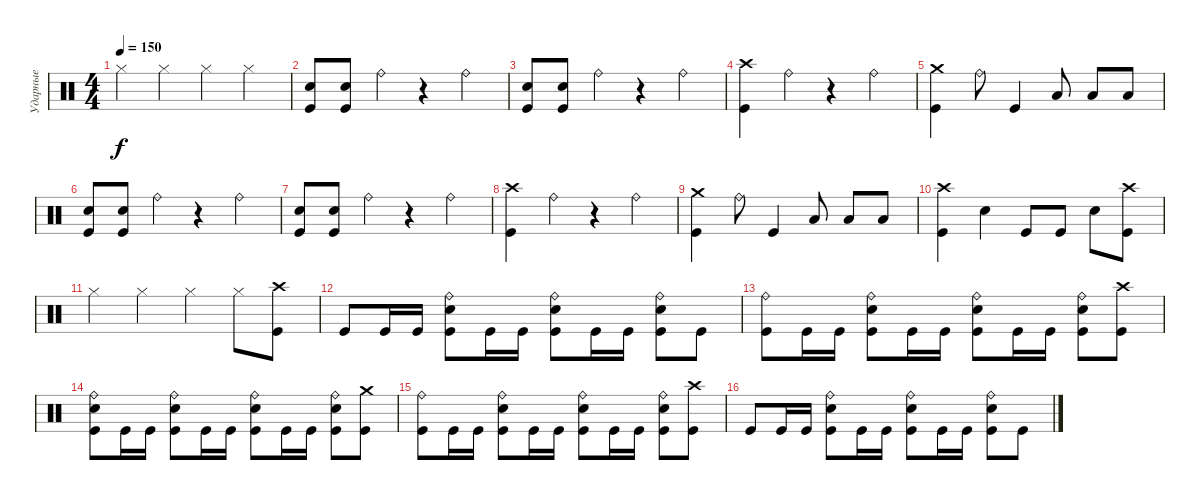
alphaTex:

\track ("Ударные" "Ударные") {instrument percussion}
\staff {score}
\articulation defaults
\ts (4 4)
\tempo 150
\clef neutral
\ks c "Hi-Hat (closed)".4{dy f} "Hi-Hat (closed)".4 "Hi-Hat (closed)".4 "Hi-Hat (closed)".4
|
("Electric Snare (hit)" "Kick (hit)").8 ("Electric Snare (hit)" "Kick (hit)").8 "Ride (bell)".4 r.4 "Ride (bell)".4 |
("Electric Snare (hit)" "Kick (hit)").8 ("Electric Snare (hit)" "Kick (hit)").8 "Ride (bell)".4 r.4 "Ride (bell)".4 |
("Crash high (hit)" "Kick (hit)").4 "Ride (bell)".4 r.4 "Ride (bell)".4 |
("Crash medium (hit)" "Kick (hit)").4 "Ride (bell)".8 "Kick (hit)".4 "Low Tom (hit)".8 "Low Tom (hit)".8 "Low Tom (hit)".8 |
("Electric Snare (hit)" "Kick (hit)").8 ("Electric Snare (hit)" "Kick (hit)").8 "Ride (bell)".4 r.4 "Ride (bell)".4 |
("Electric Snare (hit)" "Kick (hit)").8 ("Electric Snare (hit)" "Kick (hit)").8 "Ride (bell)".4 r.4 "Ride (bell)".4 |
("Crash high (hit)" "Kick (hit)").4 "Ride (bell)".4 r.4 "Ride (bell)".4 |
("Crash medium (hit)" "Kick (hit)").4 "Ride (bell)".8 "Kick (hit)".4 "Low Tom (hit)".8 "Low Tom (hit)".8 "Low Tom (hit)".8 |
("Crash high (hit)" "Kick (hit)").4 "Electric Snare (hit)".4 "Kick (hit)".8 "Kick (hit)".8 "Electric Snare (hit)".8 ("Crash high (hit)" "Kick (hit)").8 |
"Hi-Hat (closed)".4 "Hi-Hat (closed)".4 "Hi-Hat (closed)".4 "Hi-Hat (closed)".8 ("Crash high (hit)" "Kick (hit)").8 |
"Kick (hit)".8 "Kick (hit)".16 "Kick (hit)".16 ("Ride (bell)" "Electric Snare (hit)" "Kick (hit)").8 "Kick (hit)".16 "Kick (hit)".16 ("Ride (bell)" "Electric Snare (hit)" "Kick (hit)").8 "Kick (hit)".16 "Kick (hit)".16 ("Ride (bell)" "Electric Snare (hit)" "Kick (hit)").8 "Kick (hit)".8 |
("Ride (bell)" "Kick (hit)").8 "Kick (hit)".16 "Kick (hit)".16 ("Ride (bell)" "Electric Snare (hit)" "Kick (hit)").8 "Kick (hit)".16 "Kick (hit)".16 ("Ride (bell)" "Electric Snare (hit)" "Kick (hit)").8 "Kick (hit)".16 "Kick (hit)".16 ("Ride (bell)" "Electric Snare (hit)" "Kick (hit)").8 ("Crash high (hit)" "Kick (hit)").8 |
("Ride (bell)" "Electric Snare (hit)" "Kick (hit)").8 "Kick (hit)".16 "Kick (hit)".16 ("Ride (bell)" "Electric Snare (hit)" "Kick (hit)").8 "Kick (hit)".16 "Kick (hit)".16 ("Ride (bell)" "Electric Snare (hit)" "Kick (hit)").8 "Kick (hit)".16 "Kick (hit)".16 ("Ride (bell)" "Electric Snare (hit)" "Kick (hit)").8 ("Crash medium (hit)" "Kick (hit)").8 |
("Ride (bell)" "Kick (hit)").8 "Kick (hit)".16 "Kick (hit)".16 ("Ride (bell)" "Electric Snare (hit)" "Kick (hit)").8 "Kick (hit)".16 "Kick (hit)".16 ("Ride (bell)" "Electric Snare (hit)" "Kick (hit)").8 "Kick (hit)".16 "Kick (hit)".16 ("Ride (bell)" "Electric Snare (hit)" "Kick (hit)").8 ("Crash high (hit)" "Kick (hit)").8 |
"Kick (hit)".8 "Kick (hit)".16 "Kick (hit)".16 ("Ride (bell)" "Electric Snare (hit)" "Kick (hit)").8 "Kick (hit)".16 "Kick (hit)".16 ("Ride (bell)" "Electric Snare (hit)" "Kick (hit)").8 "Kick (hit)".16 "Kick (hit)".16 ("Ride (bell)" "Electric Snare (hit)" "Kick (hit)").8 "Kick (hit)".8
